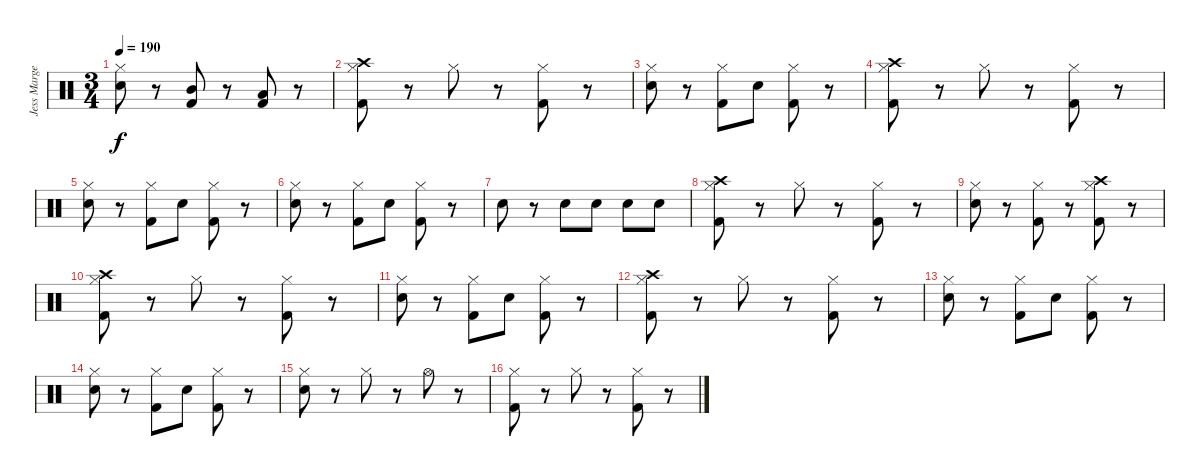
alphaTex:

\track ("Jess Margera" "Jess Marge") {instrument percussion}
\staff {score}
\articulation defaults
\ts (3 4)
\tempo 190
\clef neutral
\ks c
("Hi-Hat (closed)" "Electric Snare (hit)").8{dy f} r.8 ("Mid Tom (hit)" "Kick (hit) 2").8 r.8 ("Low Tom (hit)" "Kick (hit) 2").8 r.8 |
("Crash high (hit)" "Hi-Hat (closed)" "Kick (hit) 2").8 r.8 "Hi-Hat (closed)".8 r.8 ("Hi-Hat (closed)" "Kick (hit) 2").8 r.8 |
("Hi-Hat (closed)" "Electric Snare (hit)").8 r.8 ("Hi-Hat (closed)" "Kick (hit) 2").8 "Electric Snare (hit)".8 ("Hi-Hat (closed)" "Kick (hit) 2").8 r.8 |
("Crash high (hit)" "Hi-Hat (closed)" "Kick (hit) 2").8 r.8 "Hi-Hat (closed)".8 r.8 ("Hi-Hat (closed)" "Kick (hit) 2").8 r.8 |
("Hi-Hat (closed)" "Electric Snare (hit)").8 r.8 ("Hi-Hat (closed)" "Kick (hit) 2").8 "Electric Snare (hit)".8 ("Hi-Hat (closed)" "Kick (hit) 2").8 r.8 |
("Hi-Hat (closed)" "Electric Snare (hit)").8 r.8 ("Hi-Hat (closed)" "Kick (hit) 2").8 "Electric Snare (hit)".8 ("Hi-Hat (closed)" "Kick (hit) 2").8 r.8 |
"Electric Snare (hit)".8 r.8 "Electric Snare (hit)".8 "Electric Snare (hit)".8 "Electric Snare (hit)".8 "Electric Snare (hit)".8 |
("Crash high (hit)" "Hi-Hat (closed)" "Kick (hit) 2").8 r.8 "Hi-Hat (closed)".8 r.8 ("Hi-Hat (closed)" "Kick (hit) 2").8 r.8 |
("Hi-Hat (closed)" "Electric Snare (hit)").8 r.8 ("Hi-Hat (closed)" "Kick (hit) 2").8 r.8 ("Crash high (hit)" "Hi-Hat (closed)" "Kick (hit) 2").8 r.8 |
("Crash high (hit)" "Hi-Hat (closed)" "Kick (hit) 2").8 r.8 "Hi-Hat (closed)".8 r.8 ("Hi-Hat (closed)" "Kick (hit) 2").8 r.8 |
("Hi-Hat (closed)" "Electric Snare (hit)").8 r.8 ("Hi-Hat (closed)" "Kick (hit) 2").8 "Electric Snare (hit)".8 ("Hi-Hat (closed)" "Kick (hit) 2").8 r.8 |
("Crash high (hit)" "Hi-Hat (closed)" "Kick (hit) 2").8 r.8 "Hi-Hat (closed)".8 r.8 ("Hi-Hat (closed)" "Kick (hit) 2").8 r.8 |
("Hi-Hat (closed)" "Electric Snare (hit)").8 r.8 ("Hi-Hat (closed)" "Kick (hit) 2").8 "Electric Snare (hit)".8 ("Hi-Hat (closed)" "Kick (hit) 2").8 r.8 |
("Hi-Hat (closed)" "Electric Snare (hit)").8 r.8 ("Hi-Hat (closed)" "Kick (hit) 2").8 "Electric Snare (hit)".8 ("Hi-Hat (closed)" "Kick (hit) 2").8 r.8 |
("Hi-Hat (closed)" "Electric Snare (hit)").8 r.8 "Hi-Hat (closed)".8 r.8 "Hi-Hat (open)".8 r.8 |
("Hi-Hat (closed)" "Kick (hit) 2").8 r.8 "Hi-Hat (closed)".8 r.8 ("Hi-Hat (closed)" "Kick (hit) 2").8 r.8
